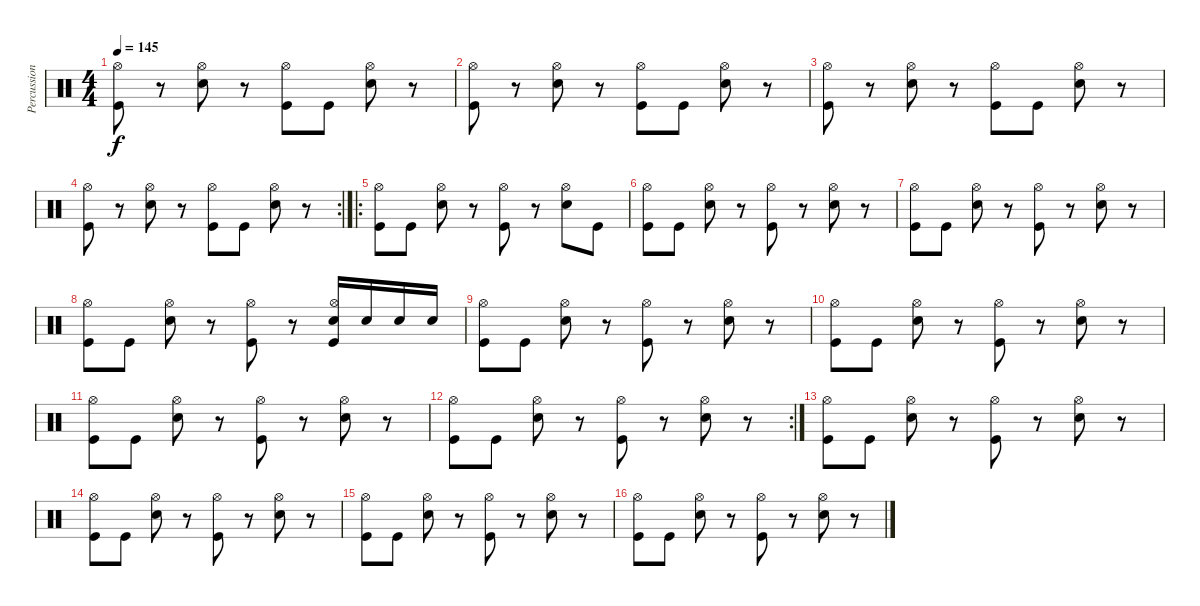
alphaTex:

\track ("Percussion" "Percussion") {instrument percussion}
\staff {score}
\articulation defaults
\ts (4 4)
\tempo 145
\clef neutral
\ks c
("Kick (hit)" "Hi-Hat (open)").8{dy f} r.8 ("Snare (hit) 2" "Hi-Hat (open)").8 r.8 ("Kick (hit)" "Hi-Hat (open)").8 "Kick (hit)".8 ("Snare (hit) 2" "Hi-Hat (open)").8 r.8 |
("Kick (hit)" "Hi-Hat (open)").8 r.8 ("Snare (hit) 2" "Hi-Hat (open)").8 r.8 ("Kick (hit)" "Hi-Hat (open)").8 "Kick (hit)".8 ("Snare (hit) 2" "Hi-Hat (open)").8 r.8 |
("Kick (hit)" "Hi-Hat (open)").8 r.8 ("Snare (hit) 2" "Hi-Hat (open)").8 r.8 ("Kick (hit)" "Hi-Hat (open)").8 "Kick (hit)".8 ("Snare (hit) 2" "Hi-Hat (open)").8 r.8 |
\rc 2
("Kick (hit)" "Hi-Hat (open)").8 r.8 ("Snare (hit) 2" "Hi-Hat (open)").8 r.8 ("Kick (hit)" "Hi-Hat (open)").8 "Kick (hit)".8 ("Snare (hit) 2" "Hi-Hat (open)").8 r.8 |
\ro
("Kick (hit)" "Hi-Hat (open)").8 "Kick (hit)".8 ("Snare (hit) 2" "Hi-Hat (open)").8 r.8 ("Kick (hit)" "Hi-Hat (open)").8 r.8 ("Snare (hit) 2" "Hi-Hat (open)").8 "Kick (hit)".8 |
("Kick (hit)" "Hi-Hat (open)").8 "Kick (hit)".8 ("Snare (hit) 2" "Hi-Hat (open)").8 r.8 ("Kick (hit)" "Hi-Hat (open)").8 r.8 ("Snare (hit) 2" "Hi-Hat (open)").8 r.8 |
("Kick (hit)" "Hi-Hat (open)").8 "Kick (hit)".8 ("Snare (hit) 2" "Hi-Hat (open)").8 r.8 ("Kick (hit)" "Hi-Hat (open)").8 r.8 ("Snare (hit) 2" "Hi-Hat (open)").8 r.8 |
("Kick (hit)" "Hi-Hat (open)").8 "Kick (hit)".8 ("Snare (hit) 2" "Hi-Hat (open)").8 r.8 ("Kick (hit)" "Hi-Hat (open)").8 r.8 ("Snare (hit) 2" "Kick (hit)" "Hi-Hat (open)").16 "Snare (hit) 2".16 "Snare (hit) 2".16 "Snare (hit) 2".16 |
("Kick (hit)" "Hi-Hat (open)").8 "Kick (hit)".8 ("Snare (hit) 2" "Hi-Hat (open)").8 r.8 ("Kick (hit)" "Hi-Hat (open)").8 r.8 ("Snare (hit) 2" "Hi-Hat (open)").8 r.8 |
("Kick (hit)" "Hi-Hat (open)").8 "Kick (hit)".8 ("Snare (hit) 2" "Hi-Hat (open)").8 r.8 ("Kick (hit)" "Hi-Hat (open)").8 r.8 ("Snare (hit) 2" "Hi-Hat (open)").8 r.8 |
("Kick (hit)" "Hi-Hat (open)").8 "Kick (hit)".8 ("Snare (hit) 2" "Hi-Hat (open)").8 r.8 ("Kick (hit)" "Hi-Hat (open)").8 r.8 ("Snare (hit) 2" "Hi-Hat (open)").8 r.8 |
\rc 2
("Kick (hit)" "Hi-Hat (open)").8 "Kick (hit)".8 ("Snare (hit) 2" "Hi-Hat (open)").8 r.8 ("Kick (hit)" "Hi-Hat (open)").8 r.8 ("Snare (hit) 2" "Hi-Hat (open)").8 r.8 |
("Kick (hit)" "Hi-Hat (open)").8 "Kick (hit)".8 ("Snare (hit) 2" "Hi-Hat (open)").8 r.8 ("Kick (hit)" "Hi-Hat (open)").8 r.8 ("Snare (hit) 2" "Hi-Hat (open)").8 r.8 |
("Kick (hit)" "Hi-Hat (open)").8 "Kick (hit)".8 ("Snare (hit) 2" "Hi-Hat (open)").8 r.8 ("Kick (hit)" "Hi-Hat (open)").8 r.8 ("Snare (hit) 2" "Hi-Hat (open)").8 r.8 |
("Kick (hit)" "Hi-Hat (open)").8 "Kick (hit)".8 ("Snare (hit) 2" "Hi-Hat (open)").8 r.8 ("Kick (hit)" "Hi-Hat (open)").8 r.8 ("Snare (hit) 2" "Hi-Hat (open)").8 r.8 |
("Kick (hit)" "Hi-Hat (open)").8 "Kick (hit)".8 ("Snare (hit) 2" "Hi-Hat (open)").8 r.8 ("Kick (hit)" "Hi-Hat (open)").8 r.8 ("Snare (hit) 2" "Hi-Hat (open)").8 r.8
